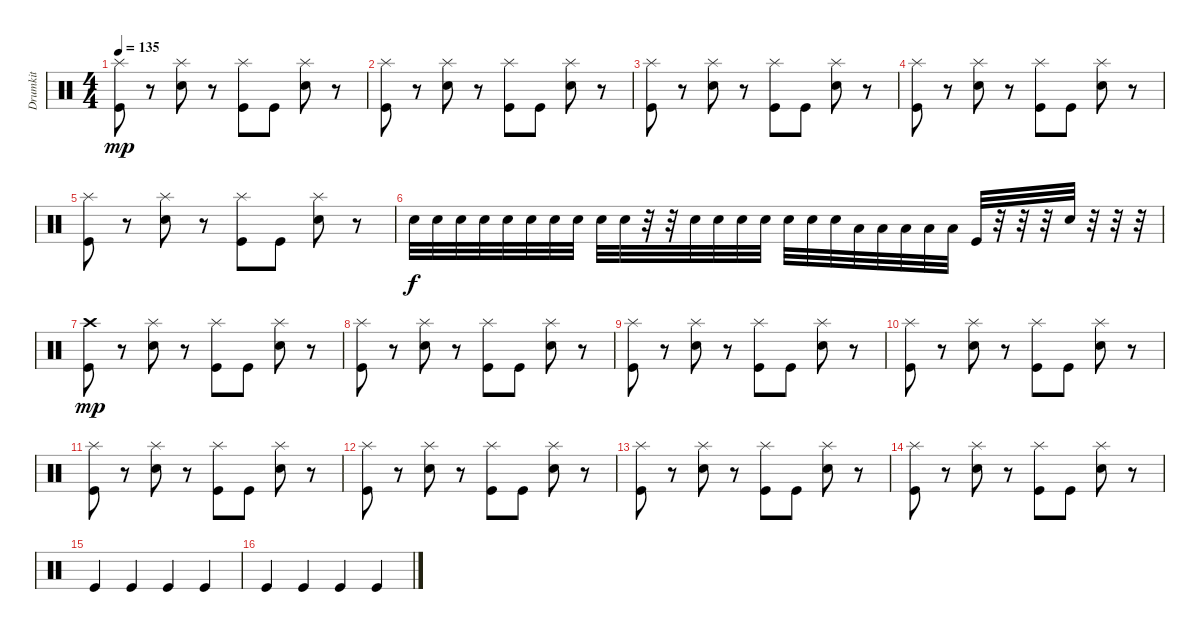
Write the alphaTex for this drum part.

\track ("Drumkit" "Drumkit") {instrument percussion}
\staff {score}
\articulation defaults
\ts (4 4)
\tempo 135
\clef neutral
\ks c
("Kick (hit)" "Splash (hit)").8{dy mp} r.8 ("Snare (hit) 2" "Splash (hit)").8 r.8 ("Kick (hit)" "Splash (hit)").8 "Kick (hit)".8 ("Snare (hit) 2" "Splash (hit)").8 r.8 |
("Kick (hit)" "Splash (hit)").8 r.8 ("Snare (hit) 2" "Splash (hit)").8 r.8 ("Kick (hit)" "Splash (hit)").8 "Kick (hit)".8 ("Snare (hit) 2" "Splash (hit)").8 r.8 |
("Kick (hit)" "Splash (hit)").8 r.8 ("Snare (hit) 2" "Splash (hit)").8 r.8 ("Kick (hit)" "Splash (hit)").8 "Kick (hit)".8 ("Snare (hit) 2" "Splash (hit)").8 r.8 |
("Kick (hit)" "Splash (hit)").8 r.8 ("Snare (hit) 2" "Splash (hit)").8 r.8 ("Kick (hit)" "Splash (hit)").8 "Kick (hit)".8 ("Snare (hit) 2" "Splash (hit)").8 r.8 |
("Kick (hit)" "Splash (hit)").8 r.8 ("Snare (hit) 2" "Splash (hit)").8 r.8 ("Kick (hit)" "Splash (hit)").8 "Kick (hit)".8 ("Snare (hit) 2" "Splash (hit)").8 r.8 |
"Snare (hit) 2".32{dy f} "Snare (hit) 2".32 "Snare (hit) 2".32 "Snare (hit) 2".32 "Snare (hit) 2".32 "Snare (hit) 2".32 "Snare (hit) 2".32 "Snare (hit) 2".32 "Snare (hit) 2".32 "Snare (hit) 2".32 r.32 r.32 "Snare (hit) 2".32 "Snare (hit) 2".32 "Snare (hit) 2".32 "Snare (hit) 2".32 "Snare (hit) 2".32 "Snare (hit) 2".32 "Snare (hit) 2".32 "Low Tom (hit)".32 "Low Tom (hit)".32 "Low Tom (hit)".32 "Low Tom (hit)".32 "Low Tom (hit)".32 "Kick (hit)".32 r.32 r.32 r.32 "Snare (hit) 2".32 r.32 r.32 r.32 |
("Kick (hit)" "Crash high (hit)").8{dy mp} r.8 ("Snare (hit) 2" "Splash (hit)").8 r.8 ("Kick (hit)" "Splash (hit)").8 "Kick (hit)".8 ("Snare (hit) 2" "Splash (hit)").8 r.8 |
("Kick (hit)" "Splash (hit)").8 r.8 ("Snare (hit) 2" "Splash (hit)").8 r.8 ("Kick (hit)" "Splash (hit)").8 "Kick (hit)".8 ("Snare (hit) 2" "Splash (hit)").8 r.8 |
("Kick (hit)" "Splash (hit)").8 r.8 ("Snare (hit) 2" "Splash (hit)").8 r.8 ("Kick (hit)" "Splash (hit)").8 "Kick (hit)".8 ("Snare (hit) 2" "Splash (hit)").8 r.8 |
("Kick (hit)" "Splash (hit)").8 r.8 ("Snare (hit) 2" "Splash (hit)").8 r.8 ("Kick (hit)" "Splash (hit)").8 "Kick (hit)".8 ("Snare (hit) 2" "Splash (hit)").8 r.8 |
("Kick (hit)" "Splash (hit)").8 r.8 ("Snare (hit) 2" "Splash (hit)").8 r.8 ("Kick (hit)" "Splash (hit)").8 "Kick (hit)".8 ("Snare (hit) 2" "Splash (hit)").8 r.8 |
("Kick (hit)" "Splash (hit)").8 r.8 ("Snare (hit) 2" "Splash (hit)").8 r.8 ("Kick (hit)" "Splash (hit)").8 "Kick (hit)".8 ("Snare (hit) 2" "Splash (hit)").8 r.8 |
("Kick (hit)" "Splash (hit)").8 r.8 ("Snare (hit) 2" "Splash (hit)").8 r.8 ("Kick (hit)" "Splash (hit)").8 "Kick (hit)".8 ("Snare (hit) 2" "Splash (hit)").8 r.8 |
("Kick (hit)" "Splash (hit)").8 r.8 ("Snare (hit) 2" "Splash (hit)").8 r.8 ("Kick (hit)" "Splash (hit)").8 "Kick (hit)".8 ("Snare (hit) 2" "Splash (hit)").8 r.8 |
"Kick (hit)".4 "Kick (hit)".4 "Kick (hit)".4 "Kick (hit)".4 |
"Kick (hit)".4 "Kick (hit)".4 "Kick (hit)".4 "Kick (hit)".4
